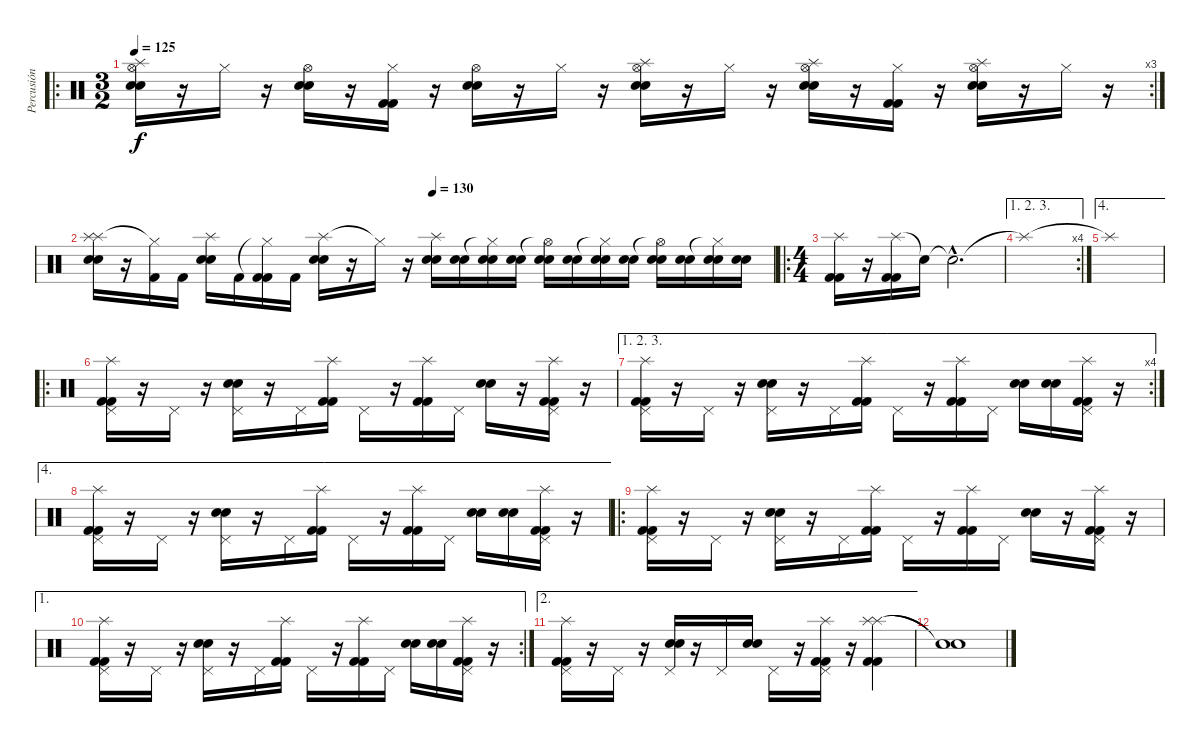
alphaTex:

\track ("Percusión" "Percusión") {instrument percussion}
\staff {score}
\articulation defaults
\ro
\rc 3
\ts (3 2)
\tempo 125
\clef neutral
\ks c
("Hi-Hat (open)" "Splash (hit)" "Electric Snare (hit)" "Electric Snare (hit)").16{dy f} r.16 "Hi-Hat (closed)".16 r.16 ("Hi-Hat (open)" "Electric Snare (hit)" "Electric Snare (hit)").16 r.16 ("Hi-Hat (closed)" "Kick (hit) 2" "Kick (hit) 2").16 r.16 ("Hi-Hat (open)" "Electric Snare (hit)" "Electric Snare (hit)").16 r.16 "Hi-Hat (closed)".16 r.16 ("Hi-Hat (open)" "Splash (hit)" "Electric Snare (hit)" "Electric Snare (hit)").16 r.16 "Hi-Hat (closed)".16 r.16 ("Hi-Hat (open)" "Splash (hit)" "Electric Snare (hit)" "Electric Snare (hit)").16 r.16 ("Hi-Hat (closed)" "Kick (hit) 2" "Kick (hit) 2").16 r.16 ("Hi-Hat (open)" "Splash (hit)" "Electric Snare (hit)" "Electric Snare (hit)").16 r.16 "Hi-Hat (closed)".16 r.16 |
\tempo (130 0.5)
("Splash (hit)" "Splash (hit)" "Electric Snare (hit)" "Electric Snare (hit)").16 r.16 ("Hi-Hat (closed)"{t} "Kick (hit) 2").16 "Kick (hit) 2".16 ("Splash (hit)" "Electric Snare (hit)" "Electric Snare (hit)").16 "Kick (hit) 2".16 ("Hi-Hat (closed)"{t} "Kick (hit) 2" "Kick (hit) 2").16 "Kick (hit) 2".16 ("Splash (hit)" "Electric Snare (hit)" "Electric Snare (hit)").16 r.16 "Hi-Hat (closed)"{t}.16 r.16 ("Splash (hit)" "Electric Snare (hit)" "Electric Snare (hit)").16 ("Electric Snare (hit)" "Electric Snare (hit)").16 ("Hi-Hat (closed)"{t} "Electric Snare (hit)" "Electric Snare (hit)").16 ("Electric Snare (hit)" "Electric Snare (hit)").16 ("Hi-Hat (open)"{t} "Electric Snare (hit)" "Electric Snare (hit)").16 ("Electric Snare (hit)" "Electric Snare (hit)").16 ("Hi-Hat (closed)"{t} "Electric Snare (hit)" "Electric Snare (hit)").16 ("Electric Snare (hit)" "Electric Snare (hit)").16 ("Hi-Hat (open)"{t} "Electric Snare (hit)" "Electric Snare (hit)").16 ("Electric Snare (hit)" "Electric Snare (hit)").16 ("Hi-Hat (closed)"{t} "Electric Snare (hit)" "Electric Snare (hit)").16 ("Electric Snare (hit)" "Electric Snare (hit)").16 |
\ro
\ts (4 4)
("Splash (hit)" "Kick (hit) 2" "Kick (hit) 2").16 r.16 ("Splash (hit)" "Kick (hit) 2" "Kick (hit) 2").16 "Snare (hit)"{t}.16 "Snare (hit)"{hac t}.2{d} |
\ae (1 2 3)
\rc 4 "Splash (hit)"{t}.1
|
\ae 4 "Splash (hit)"{t}.1
|
\ro
("Pedal Hi-Hat (hit)" "Splash (hit)" "Kick (hit) 2" "Kick (hit) 2").16 r.16 "Pedal Hi-Hat (hit)".16 r.16 ("Pedal Hi-Hat (hit)" "Electric Snare (hit)" "Electric Snare (hit)").16 r.16 "Pedal Hi-Hat (hit)".16 ("Splash (hit)" "Kick (hit) 2" "Kick (hit) 2").16 "Pedal Hi-Hat (hit)".16 r.16 ("Splash (hit)" "Kick (hit) 2" "Kick (hit) 2").16 "Pedal Hi-Hat (hit)".16 ("Electric Snare (hit)" "Electric Snare (hit)").16 r.16 ("Pedal Hi-Hat (hit)" "Splash (hit)" "Kick (hit) 2" "Kick (hit) 2").16 r.16 |
\ae (1 2 3)
\rc 4
("Pedal Hi-Hat (hit)" "Splash (hit)" "Kick (hit) 2" "Kick (hit) 2").16 r.16 "Pedal Hi-Hat (hit)".16 r.16 ("Pedal Hi-Hat (hit)" "Electric Snare (hit)" "Electric Snare (hit)").16 r.16 "Pedal Hi-Hat (hit)".16 ("Splash (hit)" "Kick (hit) 2" "Kick (hit) 2").16 "Pedal Hi-Hat (hit)".16 r.16 ("Splash (hit)" "Kick (hit) 2" "Kick (hit) 2").16 "Pedal Hi-Hat (hit)".16 ("Electric Snare (hit)" "Electric Snare (hit)").16 ("Electric Snare (hit)" "Electric Snare (hit)").16 ("Pedal Hi-Hat (hit)" "Splash (hit)" "Kick (hit) 2" "Kick (hit) 2").16 r.16 |
\ae 4
("Pedal Hi-Hat (hit)" "Splash (hit)" "Kick (hit) 2" "Kick (hit) 2").16 r.16 "Pedal Hi-Hat (hit)".16 r.16 ("Pedal Hi-Hat (hit)" "Electric Snare (hit)" "Electric Snare (hit)").16 r.16 "Pedal Hi-Hat (hit)".16 ("Splash (hit)" "Kick (hit) 2" "Kick (hit) 2").16 "Pedal Hi-Hat (hit)".16 r.16 ("Splash (hit)" "Kick (hit) 2" "Kick (hit) 2").16 "Pedal Hi-Hat (hit)".16 ("Electric Snare (hit)" "Electric Snare (hit)").16 ("Electric Snare (hit)" "Electric Snare (hit)").16 ("Pedal Hi-Hat (hit)" "Splash (hit)" "Kick (hit) 2" "Kick (hit) 2").16 r.16 |
\ro
("Pedal Hi-Hat (hit)" "Splash (hit)" "Kick (hit) 2" "Kick (hit) 2").16 r.16 "Pedal Hi-Hat (hit)".16 r.16 ("Pedal Hi-Hat (hit)" "Electric Snare (hit)" "Electric Snare (hit)").16 r.16 "Pedal Hi-Hat (hit)".16 ("Splash (hit)" "Kick (hit) 2" "Kick (hit) 2").16 "Pedal Hi-Hat (hit)".16 r.16 ("Splash (hit)" "Kick (hit) 2" "Kick (hit) 2").16 "Pedal Hi-Hat (hit)".16 ("Electric Snare (hit)" "Electric Snare (hit)").16 r.16 ("Pedal Hi-Hat (hit)" "Splash (hit)" "Kick (hit) 2" "Kick (hit) 2").16 r.16 |
\ae 1
\rc 2
("Pedal Hi-Hat (hit)" "Splash (hit)" "Kick (hit) 2" "Kick (hit) 2").16 r.16 "Pedal Hi-Hat (hit)".16 r.16 ("Pedal Hi-Hat (hit)" "Electric Snare (hit)" "Electric Snare (hit)").16 r.16 "Pedal Hi-Hat (hit)".16 ("Splash (hit)" "Kick (hit) 2" "Kick (hit) 2").16 "Pedal Hi-Hat (hit)".16 r.16 ("Splash (hit)" "Kick (hit) 2" "Kick (hit) 2").16 "Pedal Hi-Hat (hit)".16 ("Electric Snare (hit)" "Electric Snare (hit)").16 ("Electric Snare (hit)" "Electric Snare (hit)").16 ("Pedal Hi-Hat (hit)" "Splash (hit)" "Kick (hit) 2" "Kick (hit) 2").16 r.16 |
\ae 2
("Pedal Hi-Hat (hit)" "Splash (hit)" "Kick (hit) 2" "Kick (hit) 2").16 r.16 "Pedal Hi-Hat (hit)".16 r.16 ("Pedal Hi-Hat (hit)" "Electric Snare (hit)" "Electric Snare (hit)").16 r.16 "Pedal Hi-Hat (hit)".16 ("Electric Snare (hit)" "Electric Snare (hit)").16 "Pedal Hi-Hat (hit)".16 r.16 ("Pedal Hi-Hat (hit)" "Splash (hit)" "Kick (hit) 2" "Kick (hit) 2").16 r.16 ("Splash (hit)" "Splash (hit)" "Kick (hit) 2" "Kick (hit) 2").4 |
("Snare (hit)"{t} "Snare (hit)"{t}).1
